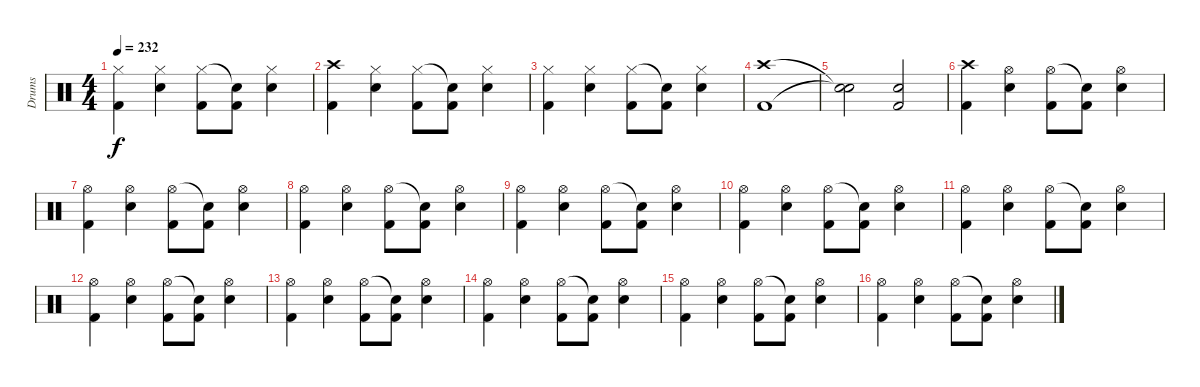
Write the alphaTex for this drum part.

\track ("Drums" "Drums") {instrument percussion}
\staff {score}
\articulation defaults
\ts (4 4)
\tempo 232
\clef neutral
\ks c
("Hi-Hat (closed)" "Kick (hit) 2").4{dy f} ("Hi-Hat (closed)" "Snare (hit) 2").4 ("Hi-Hat (closed)" "Kick (hit) 2").8 ("Snare (hit)"{t} "Kick (hit) 2").8 ("Hi-Hat (closed)" "Snare (hit) 2").4 |
("Crash high (hit)" "Kick (hit) 2").4 ("Hi-Hat (closed)" "Snare (hit) 2").4 ("Hi-Hat (closed)" "Kick (hit) 2").8 ("Snare (hit)"{t} "Kick (hit) 2").8 ("Hi-Hat (closed)" "Snare (hit) 2").4 |
("Hi-Hat (closed)" "Kick (hit) 2").4 ("Hi-Hat (closed)" "Snare (hit) 2").4 ("Hi-Hat (closed)" "Kick (hit) 2").8 ("Snare (hit)"{t} "Kick (hit) 2").8 ("Hi-Hat (closed)" "Snare (hit) 2").4 |
("Crash high (hit)" "Kick (hit) 2").1 |
("Snare (hit)"{t} "Snare (hit)"{t}).2 ("Snare (hit) 2" "Kick (hit) 2").2 |
("Crash high (hit)" "Kick (hit) 2").4 ("Hi-Hat (open)" "Snare (hit) 2").4 ("Hi-Hat (open)" "Kick (hit) 2").8 ("Snare (hit)"{t} "Kick (hit) 2").8 ("Hi-Hat (open)" "Snare (hit) 2").4 |
("Hi-Hat (open)" "Kick (hit) 2").4 ("Hi-Hat (open)" "Snare (hit) 2").4 ("Hi-Hat (open)" "Kick (hit) 2").8 ("Snare (hit)"{t} "Kick (hit) 2").8 ("Hi-Hat (open)" "Snare (hit) 2").4 |
("Hi-Hat (open)" "Kick (hit) 2").4 ("Hi-Hat (open)" "Snare (hit) 2").4 ("Hi-Hat (open)" "Kick (hit) 2").8 ("Snare (hit)"{t} "Kick (hit) 2").8 ("Hi-Hat (open)" "Snare (hit) 2").4 |
("Hi-Hat (open)" "Kick (hit) 2").4 ("Hi-Hat (open)" "Snare (hit) 2").4 ("Hi-Hat (open)" "Kick (hit) 2").8 ("Snare (hit)"{t} "Kick (hit) 2").8 ("Hi-Hat (open)" "Snare (hit) 2").4 |
("Hi-Hat (open)" "Kick (hit) 2").4 ("Hi-Hat (open)" "Snare (hit) 2").4 ("Hi-Hat (open)" "Kick (hit) 2").8 ("Snare (hit)"{t} "Kick (hit) 2").8 ("Hi-Hat (open)" "Snare (hit) 2").4 |
("Hi-Hat (open)" "Kick (hit) 2").4 ("Hi-Hat (open)" "Snare (hit) 2").4 ("Hi-Hat (open)" "Kick (hit) 2").8 ("Snare (hit)"{t} "Kick (hit) 2").8 ("Hi-Hat (open)" "Snare (hit) 2").4 |
("Hi-Hat (open)" "Kick (hit) 2").4 ("Hi-Hat (open)" "Snare (hit) 2").4 ("Hi-Hat (open)" "Kick (hit) 2").8 ("Snare (hit)"{t} "Kick (hit) 2").8 ("Hi-Hat (open)" "Snare (hit) 2").4 |
("Hi-Hat (open)" "Kick (hit) 2").4 ("Hi-Hat (open)" "Snare (hit) 2").4 ("Hi-Hat (open)" "Kick (hit) 2").8 ("Snare (hit)"{t} "Kick (hit) 2").8 ("Hi-Hat (open)" "Snare (hit) 2").4 |
("Hi-Hat (open)" "Kick (hit) 2").4 ("Hi-Hat (open)" "Snare (hit) 2").4 ("Hi-Hat (open)" "Kick (hit) 2").8 ("Snare (hit)"{t} "Kick (hit) 2").8 ("Hi-Hat (open)" "Snare (hit) 2").4 |
("Hi-Hat (open)" "Kick (hit) 2").4 ("Hi-Hat (open)" "Snare (hit) 2").4 ("Hi-Hat (open)" "Kick (hit) 2").8 ("Snare (hit)"{t} "Kick (hit) 2").8 ("Hi-Hat (open)" "Snare (hit) 2").4 |
("Hi-Hat (open)" "Kick (hit) 2").4 ("Hi-Hat (open)" "Snare (hit) 2").4 ("Hi-Hat (open)" "Kick (hit) 2").8 ("Snare (hit)"{t} "Kick (hit) 2").8 ("Hi-Hat (open)" "Snare (hit) 2").4
